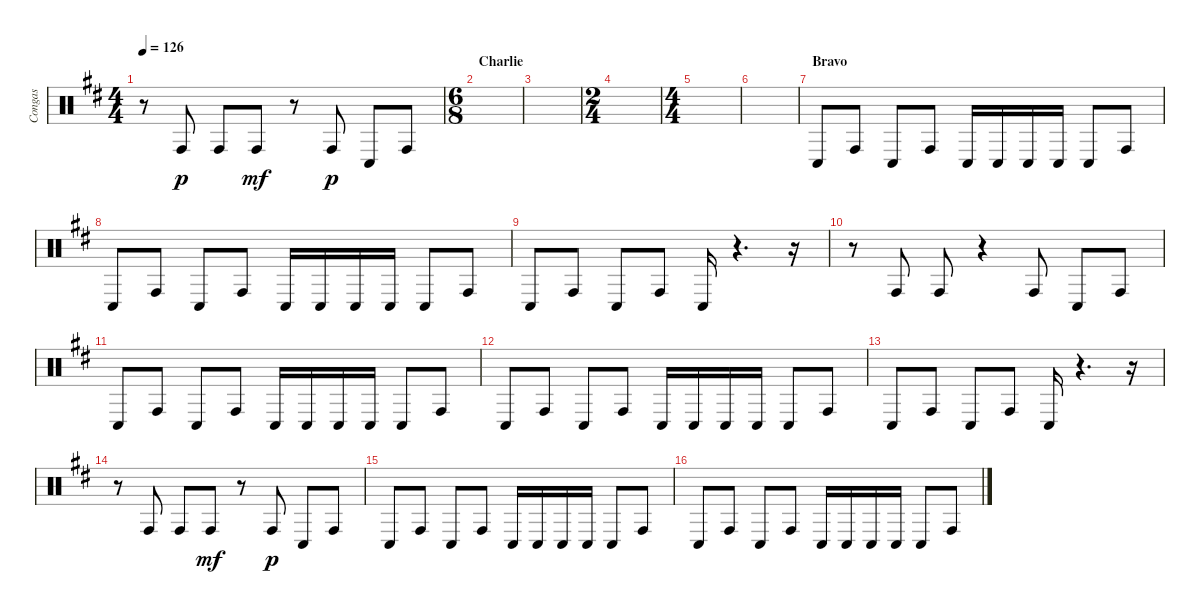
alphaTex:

\track ("Congas" "Congas") {instrument percussion}
\staff {score}
\articulation defaults
\ts (4 4)
\tempo 126
\clef neutral
\ks bminor
r.8{dy p} "Conga high (hit)".8 "Conga high (hit)".8 "Conga high (hit)".8{dy mf} r.8 "Conga high (hit)".8{dy p} "Conga low (hit)".8 "Conga high (hit)".8 |
\ts (6 8)
\section ("" "Charlie")
|
|
\ts (2 4)
|
\ts (4 4)
|
|
\section ("" "Bravo")
"Conga low (hit)".8 "Conga high (hit)".8 "Conga low (hit)".8 "Conga high (hit)".8 "Conga low (hit)".16 "Conga low (hit)".16 "Conga low (hit)".16 "Conga low (hit)".16 "Conga low (hit)".8 "Conga high (hit)".8 |
"Conga low (hit)".8 "Conga high (hit)".8 "Conga low (hit)".8 "Conga high (hit)".8 "Conga low (hit)".16 "Conga low (hit)".16 "Conga low (hit)".16 "Conga low (hit)".16 "Conga low (hit)".8 "Conga high (hit)".8 |
"Conga low (hit)".8 "Conga high (hit)".8 "Conga low (hit)".8 "Conga high (hit)".8 "Conga low (hit)".16 r.4{d} r.16 |
r.8 "Conga high (hit)".8 "Conga high (hit)".8 r.4 "Conga high (hit)".8 "Conga low (hit)".8 "Conga high (hit)".8 |
"Conga low (hit)".8 "Conga high (hit)".8 "Conga low (hit)".8 "Conga high (hit)".8 "Conga low (hit)".16 "Conga low (hit)".16 "Conga low (hit)".16 "Conga low (hit)".16 "Conga low (hit)".8 "Conga high (hit)".8 |
"Conga low (hit)".8 "Conga high (hit)".8 "Conga low (hit)".8 "Conga high (hit)".8 "Conga low (hit)".16 "Conga low (hit)".16 "Conga low (hit)".16 "Conga low (hit)".16 "Conga low (hit)".8 "Conga high (hit)".8 |
"Conga low (hit)".8 "Conga high (hit)".8 "Conga low (hit)".8 "Conga high (hit)".8 "Conga low (hit)".16 r.4{d} r.16 |
r.8 "Conga high (hit)".8 "Conga high (hit)".8 "Conga high (hit)".8{dy mf} r.8 "Conga high (hit)".8{dy p} "Conga low (hit)".8 "Conga high (hit)".8 |
"Conga low (hit)".8 "Conga high (hit)".8 "Conga low (hit)".8 "Conga high (hit)".8 "Conga low (hit)".16 "Conga low (hit)".16 "Conga low (hit)".16 "Conga low (hit)".16 "Conga low (hit)".8 "Conga high (hit)".8 |
"Conga low (hit)".8 "Conga high (hit)".8 "Conga low (hit)".8 "Conga high (hit)".8 "Conga low (hit)".16 "Conga low (hit)".16 "Conga low (hit)".16 "Conga low (hit)".16 "Conga low (hit)".8 "Conga high (hit)".8
